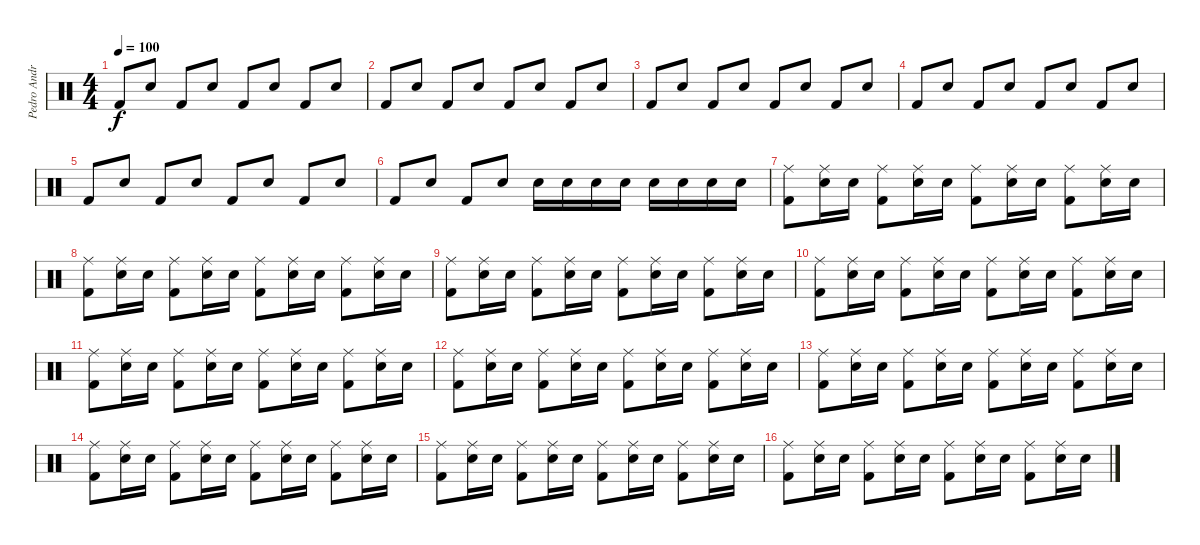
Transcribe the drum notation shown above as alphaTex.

\track ("Pedro Andreu" "Pedro Andr") {instrument percussion}
\staff {score}
\articulation defaults
\ts (4 4)
\tempo 100
\clef neutral
\ks c "Kick (hit) 2".8{dy f} "Snare (hit) 2".8 "Kick (hit) 2".8 "Snare (hit) 2".8 "Kick (hit) 2".8 "Snare (hit) 2".8 "Kick (hit) 2".8 "Snare (hit) 2".8
|
"Kick (hit) 2".8 "Snare (hit) 2".8 "Kick (hit) 2".8 "Snare (hit) 2".8 "Kick (hit) 2".8 "Snare (hit) 2".8 "Kick (hit) 2".8 "Snare (hit) 2".8 |
"Kick (hit) 2".8 "Snare (hit) 2".8 "Kick (hit) 2".8 "Snare (hit) 2".8 "Kick (hit) 2".8 "Snare (hit) 2".8 "Kick (hit) 2".8 "Snare (hit) 2".8 |
"Kick (hit) 2".8 "Snare (hit) 2".8 "Kick (hit) 2".8 "Snare (hit) 2".8 "Kick (hit) 2".8 "Snare (hit) 2".8 "Kick (hit) 2".8 "Snare (hit) 2".8 |
"Kick (hit) 2".8 "Snare (hit) 2".8 "Kick (hit) 2".8 "Snare (hit) 2".8 "Kick (hit) 2".8 "Snare (hit) 2".8 "Kick (hit) 2".8 "Snare (hit) 2".8 |
"Kick (hit) 2".8 "Snare (hit) 2".8 "Kick (hit) 2".8 "Snare (hit) 2".8 "Snare (hit) 2".16 "Snare (hit) 2".16 "Snare (hit) 2".16 "Snare (hit) 2".16 "Snare (hit) 2".16 "Snare (hit) 2".16 "Snare (hit) 2".16 "Snare (hit) 2".16 |
("Ride (middle)" "Kick (hit) 2").8 ("Ride (middle)" "Snare (hit) 2").16 "Snare (hit) 2".16 ("Ride (middle)" "Kick (hit) 2").8 ("Ride (middle)" "Snare (hit) 2").16 "Snare (hit) 2".16 ("Ride (middle)" "Kick (hit) 2").8 ("Ride (middle)" "Snare (hit) 2").16 "Snare (hit) 2".16 ("Ride (middle)" "Kick (hit) 2").8 ("Ride (middle)" "Snare (hit) 2").16 "Snare (hit) 2".16 |
("Ride (middle)" "Kick (hit) 2").8 ("Ride (middle)" "Snare (hit) 2").16 "Snare (hit) 2".16 ("Ride (middle)" "Kick (hit) 2").8 ("Ride (middle)" "Snare (hit) 2").16 "Snare (hit) 2".16 ("Ride (middle)" "Kick (hit) 2").8 ("Ride (middle)" "Snare (hit) 2").16 "Snare (hit) 2".16 ("Ride (middle)" "Kick (hit) 2").8 ("Ride (middle)" "Snare (hit) 2").16 "Snare (hit) 2".16 |
("Ride (middle)" "Kick (hit) 2").8 ("Ride (middle)" "Snare (hit) 2").16 "Snare (hit) 2".16 ("Ride (middle)" "Kick (hit) 2").8 ("Ride (middle)" "Snare (hit) 2").16 "Snare (hit) 2".16 ("Ride (middle)" "Kick (hit) 2").8 ("Ride (middle)" "Snare (hit) 2").16 "Snare (hit) 2".16 ("Ride (middle)" "Kick (hit) 2").8 ("Ride (middle)" "Snare (hit) 2").16 "Snare (hit) 2".16 |
("Ride (middle)" "Kick (hit) 2").8 ("Ride (middle)" "Snare (hit) 2").16 "Snare (hit) 2".16 ("Ride (middle)" "Kick (hit) 2").8 ("Ride (middle)" "Snare (hit) 2").16 "Snare (hit) 2".16 ("Ride (middle)" "Kick (hit) 2").8 ("Ride (middle)" "Snare (hit) 2").16 "Snare (hit) 2".16 ("Ride (middle)" "Kick (hit) 2").8 ("Ride (middle)" "Snare (hit) 2").16 "Snare (hit) 2".16 |
("Ride (middle)" "Kick (hit) 2").8 ("Ride (middle)" "Snare (hit) 2").16 "Snare (hit) 2".16 ("Ride (middle)" "Kick (hit) 2").8 ("Ride (middle)" "Snare (hit) 2").16 "Snare (hit) 2".16 ("Ride (middle)" "Kick (hit) 2").8 ("Ride (middle)" "Snare (hit) 2").16 "Snare (hit) 2".16 ("Ride (middle)" "Kick (hit) 2").8 ("Ride (middle)" "Snare (hit) 2").16 "Snare (hit) 2".16 |
("Ride (middle)" "Kick (hit) 2").8 ("Ride (middle)" "Snare (hit) 2").16 "Snare (hit) 2".16 ("Ride (middle)" "Kick (hit) 2").8 ("Ride (middle)" "Snare (hit) 2").16 "Snare (hit) 2".16 ("Ride (middle)" "Kick (hit) 2").8 ("Ride (middle)" "Snare (hit) 2").16 "Snare (hit) 2".16 ("Ride (middle)" "Kick (hit) 2").8 ("Ride (middle)" "Snare (hit) 2").16 "Snare (hit) 2".16 |
("Ride (middle)" "Kick (hit) 2").8 ("Ride (middle)" "Snare (hit) 2").16 "Snare (hit) 2".16 ("Ride (middle)" "Kick (hit) 2").8 ("Ride (middle)" "Snare (hit) 2").16 "Snare (hit) 2".16 ("Ride (middle)" "Kick (hit) 2").8 ("Ride (middle)" "Snare (hit) 2").16 "Snare (hit) 2".16 ("Ride (middle)" "Kick (hit) 2").8 ("Ride (middle)" "Snare (hit) 2").16 "Snare (hit) 2".16 |
("Ride (middle)" "Kick (hit) 2").8 ("Ride (middle)" "Snare (hit) 2").16 "Snare (hit) 2".16 ("Ride (middle)" "Kick (hit) 2").8 ("Ride (middle)" "Snare (hit) 2").16 "Snare (hit) 2".16 ("Ride (middle)" "Kick (hit) 2").8 ("Ride (middle)" "Snare (hit) 2").16 "Snare (hit) 2".16 ("Ride (middle)" "Kick (hit) 2").8 ("Ride (middle)" "Snare (hit) 2").16 "Snare (hit) 2".16 |
("Ride (middle)" "Kick (hit) 2").8 ("Ride (middle)" "Snare (hit) 2").16{volume 16} "Snare (hit) 2".16{volume 15} ("Ride (middle)" "Kick (hit) 2").8{volume 15} ("Ride (middle)" "Snare (hit) 2").16{volume 14} "Snare (hit) 2".16{volume 14} ("Ride (middle)" "Kick (hit) 2").8{volume 14} ("Ride (middle)" "Snare (hit) 2").16{volume 14} "Snare (hit) 2".16{volume 13} ("Ride (middle)" "Kick (hit) 2").8{volume 13} ("Ride (middle)" "Snare (hit) 2").16{volume 12} "Snare (hit) 2".16{volume 12} |
("Ride (middle)" "Kick (hit) 2").8{volume 12} ("Ride (middle)" "Snare (hit) 2").16{volume 12} "Snare (hit) 2".16{volume 11} ("Ride (middle)" "Kick (hit) 2").8{volume 11} ("Ride (middle)" "Snare (hit) 2").16{volume 10} "Snare (hit) 2".16{volume 10} ("Ride (middle)" "Kick (hit) 2").8{volume 10} ("Ride (middle)" "Snare (hit) 2").16{volume 10} "Snare (hit) 2".16{volume 9} ("Ride (middle)" "Kick (hit) 2").8{volume 9} ("Ride (middle)" "Snare (hit) 2").16{volume 8} "Snare (hit) 2".16{volume 8}
